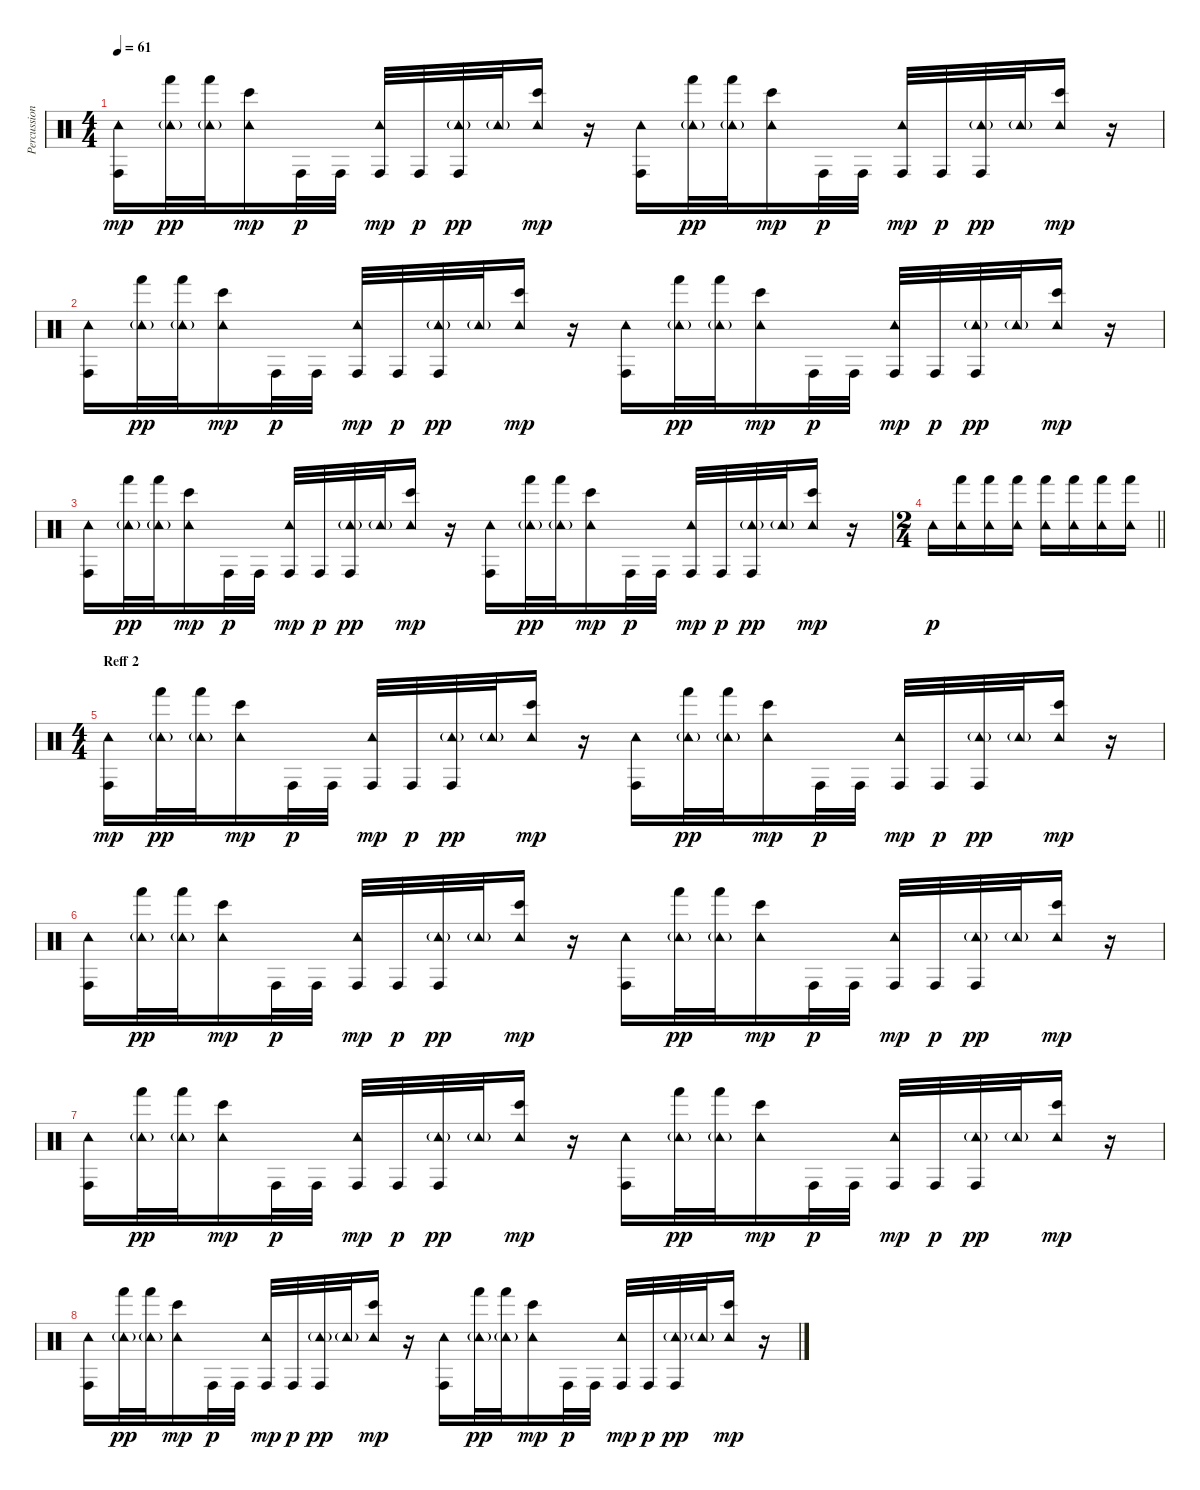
\track ("Percussion 2" "Percussion") {instrument percussion}
\staff {score}
\articulation defaults
\ts (4 4)
\tempo 61
\clef neutral
\ks c
("Conga high (hit)" "Tambourine (hit)").16{dy mp} ("Hand (hit)" "Tambourine (hit)"{g}).32{dy pp} ("Hand (hit)" "Tambourine (hit)"{g}).32 ("Bongo High (hit)" "Tambourine (hit)").16{dy mp} "Conga high (hit)".32{dy p} "Conga high (hit)".32 ("Conga high (hit)" "Tambourine (hit)").32{dy mp} "Conga high (hit)".32{dy p} ("Conga high (hit)" "Tambourine (hit)"{g}).32{dy pp} "Tambourine (hit)"{g}.32 ("Bongo High (hit)" "Tambourine (hit)").16{dy mp} r.16 ("Conga high (hit)" "Tambourine (hit)").16 ("Hand (hit)" "Tambourine (hit)"{g}).32{dy pp} ("Hand (hit)" "Tambourine (hit)"{g}).32 ("Bongo High (hit)" "Tambourine (hit)").16{dy mp} "Conga high (hit)".32{dy p} "Conga high (hit)".32 ("Conga high (hit)" "Tambourine (hit)").32{dy mp} "Conga high (hit)".32{dy p} ("Conga high (hit)" "Tambourine (hit)"{g}).32{dy pp} "Tambourine (hit)"{g}.32 ("Bongo High (hit)" "Tambourine (hit)").16{dy mp} r.16 |
("Conga high (hit)" "Tambourine (hit)").16 ("Hand (hit)" "Tambourine (hit)"{g}).32{dy pp} ("Hand (hit)" "Tambourine (hit)"{g}).32 ("Bongo High (hit)" "Tambourine (hit)").16{dy mp} "Conga high (hit)".32{dy p} "Conga high (hit)".32 ("Conga high (hit)" "Tambourine (hit)").32{dy mp} "Conga high (hit)".32{dy p} ("Conga high (hit)" "Tambourine (hit)"{g}).32{dy pp} "Tambourine (hit)"{g}.32 ("Bongo High (hit)" "Tambourine (hit)").16{dy mp} r.16 ("Conga high (hit)" "Tambourine (hit)").16 ("Hand (hit)" "Tambourine (hit)"{g}).32{dy pp} ("Hand (hit)" "Tambourine (hit)"{g}).32 ("Bongo High (hit)" "Tambourine (hit)").16{dy mp} "Conga high (hit)".32{dy p} "Conga high (hit)".32 ("Conga high (hit)" "Tambourine (hit)").32{dy mp} "Conga high (hit)".32{dy p} ("Conga high (hit)" "Tambourine (hit)"{g}).32{dy pp} "Tambourine (hit)"{g}.32 ("Bongo High (hit)" "Tambourine (hit)").16{dy mp} r.16 |
("Conga high (hit)" "Tambourine (hit)").16 ("Hand (hit)" "Tambourine (hit)"{g}).32{dy pp} ("Hand (hit)" "Tambourine (hit)"{g}).32 ("Bongo High (hit)" "Tambourine (hit)").16{dy mp} "Conga high (hit)".32{dy p} "Conga high (hit)".32 ("Conga high (hit)" "Tambourine (hit)").32{dy mp} "Conga high (hit)".32{dy p} ("Conga high (hit)" "Tambourine (hit)"{g}).32{dy pp} "Tambourine (hit)"{g}.32 ("Bongo High (hit)" "Tambourine (hit)").16{dy mp} r.16 ("Conga high (hit)" "Tambourine (hit)").16 ("Hand (hit)" "Tambourine (hit)"{g}).32{dy pp} ("Hand (hit)" "Tambourine (hit)"{g}).32 ("Bongo High (hit)" "Tambourine (hit)").16{dy mp} "Conga high (hit)".32{dy p} "Conga high (hit)".32 ("Conga high (hit)" "Tambourine (hit)").32{dy mp} "Conga high (hit)".32{dy p} ("Conga high (hit)" "Tambourine (hit)"{g}).32{dy pp} "Tambourine (hit)"{g}.32 ("Bongo High (hit)" "Tambourine (hit)").16{dy mp} r.16 |
\ts (2 4)
\barLineRight lightlight "Tambourine (hit)".16{dy p}
("Hand (hit)" "Tambourine (hit)").16 ("Hand (hit)" "Tambourine (hit)").16 ("Hand (hit)" "Tambourine (hit)").16 ("Hand (hit)" "Tambourine (hit)").16 ("Hand (hit)" "Tambourine (hit)").16 ("Hand (hit)" "Tambourine (hit)").16 ("Hand (hit)" "Tambourine (hit)").16 |
\ts (4 4)
\section ("" "Reff 2")
("Conga high (hit)" "Tambourine (hit)").16{dy mp} ("Hand (hit)" "Tambourine (hit)"{g}).32{dy pp} ("Hand (hit)" "Tambourine (hit)"{g}).32 ("Bongo High (hit)" "Tambourine (hit)").16{dy mp} "Conga high (hit)".32{dy p} "Conga high (hit)".32 ("Conga high (hit)" "Tambourine (hit)").32{dy mp} "Conga high (hit)".32{dy p} ("Conga high (hit)" "Tambourine (hit)"{g}).32{dy pp} "Tambourine (hit)"{g}.32 ("Bongo High (hit)" "Tambourine (hit)").16{dy mp} r.16 ("Conga high (hit)" "Tambourine (hit)").16 ("Hand (hit)" "Tambourine (hit)"{g}).32{dy pp} ("Hand (hit)" "Tambourine (hit)"{g}).32 ("Bongo High (hit)" "Tambourine (hit)").16{dy mp} "Conga high (hit)".32{dy p} "Conga high (hit)".32 ("Conga high (hit)" "Tambourine (hit)").32{dy mp} "Conga high (hit)".32{dy p} ("Conga high (hit)" "Tambourine (hit)"{g}).32{dy pp} "Tambourine (hit)"{g}.32 ("Bongo High (hit)" "Tambourine (hit)").16{dy mp} r.16 |
("Conga high (hit)" "Tambourine (hit)").16 ("Hand (hit)" "Tambourine (hit)"{g}).32{dy pp} ("Hand (hit)" "Tambourine (hit)"{g}).32 ("Bongo High (hit)" "Tambourine (hit)").16{dy mp} "Conga high (hit)".32{dy p} "Conga high (hit)".32 ("Conga high (hit)" "Tambourine (hit)").32{dy mp} "Conga high (hit)".32{dy p} ("Conga high (hit)" "Tambourine (hit)"{g}).32{dy pp} "Tambourine (hit)"{g}.32 ("Bongo High (hit)" "Tambourine (hit)").16{dy mp} r.16 ("Conga high (hit)" "Tambourine (hit)").16 ("Hand (hit)" "Tambourine (hit)"{g}).32{dy pp} ("Hand (hit)" "Tambourine (hit)"{g}).32 ("Bongo High (hit)" "Tambourine (hit)").16{dy mp} "Conga high (hit)".32{dy p} "Conga high (hit)".32 ("Conga high (hit)" "Tambourine (hit)").32{dy mp} "Conga high (hit)".32{dy p} ("Conga high (hit)" "Tambourine (hit)"{g}).32{dy pp} "Tambourine (hit)"{g}.32 ("Bongo High (hit)" "Tambourine (hit)").16{dy mp} r.16 |
("Conga high (hit)" "Tambourine (hit)").16 ("Hand (hit)" "Tambourine (hit)"{g}).32{dy pp} ("Hand (hit)" "Tambourine (hit)"{g}).32 ("Bongo High (hit)" "Tambourine (hit)").16{dy mp} "Conga high (hit)".32{dy p} "Conga high (hit)".32 ("Conga high (hit)" "Tambourine (hit)").32{dy mp} "Conga high (hit)".32{dy p} ("Conga high (hit)" "Tambourine (hit)"{g}).32{dy pp} "Tambourine (hit)"{g}.32 ("Bongo High (hit)" "Tambourine (hit)").16{dy mp} r.16 ("Conga high (hit)" "Tambourine (hit)").16 ("Hand (hit)" "Tambourine (hit)"{g}).32{dy pp} ("Hand (hit)" "Tambourine (hit)"{g}).32 ("Bongo High (hit)" "Tambourine (hit)").16{dy mp} "Conga high (hit)".32{dy p} "Conga high (hit)".32 ("Conga high (hit)" "Tambourine (hit)").32{dy mp} "Conga high (hit)".32{dy p} ("Conga high (hit)" "Tambourine (hit)"{g}).32{dy pp} "Tambourine (hit)"{g}.32 ("Bongo High (hit)" "Tambourine (hit)").16{dy mp} r.16 |
("Conga high (hit)" "Tambourine (hit)").16 ("Hand (hit)" "Tambourine (hit)"{g}).32{dy pp} ("Hand (hit)" "Tambourine (hit)"{g}).32 ("Bongo High (hit)" "Tambourine (hit)").16{dy mp} "Conga high (hit)".32{dy p} "Conga high (hit)".32 ("Conga high (hit)" "Tambourine (hit)").32{dy mp} "Conga high (hit)".32{dy p} ("Conga high (hit)" "Tambourine (hit)"{g}).32{dy pp} "Tambourine (hit)"{g}.32 ("Bongo High (hit)" "Tambourine (hit)").16{dy mp} r.16 ("Conga high (hit)" "Tambourine (hit)").16 ("Hand (hit)" "Tambourine (hit)"{g}).32{dy pp} ("Hand (hit)" "Tambourine (hit)"{g}).32 ("Bongo High (hit)" "Tambourine (hit)").16{dy mp} "Conga high (hit)".32{dy p} "Conga high (hit)".32 ("Conga high (hit)" "Tambourine (hit)").32{dy mp} "Conga high (hit)".32{dy p} ("Conga high (hit)" "Tambourine (hit)"{g}).32{dy pp} "Tambourine (hit)"{g}.32 ("Bongo High (hit)" "Tambourine (hit)").16{dy mp} r.16
